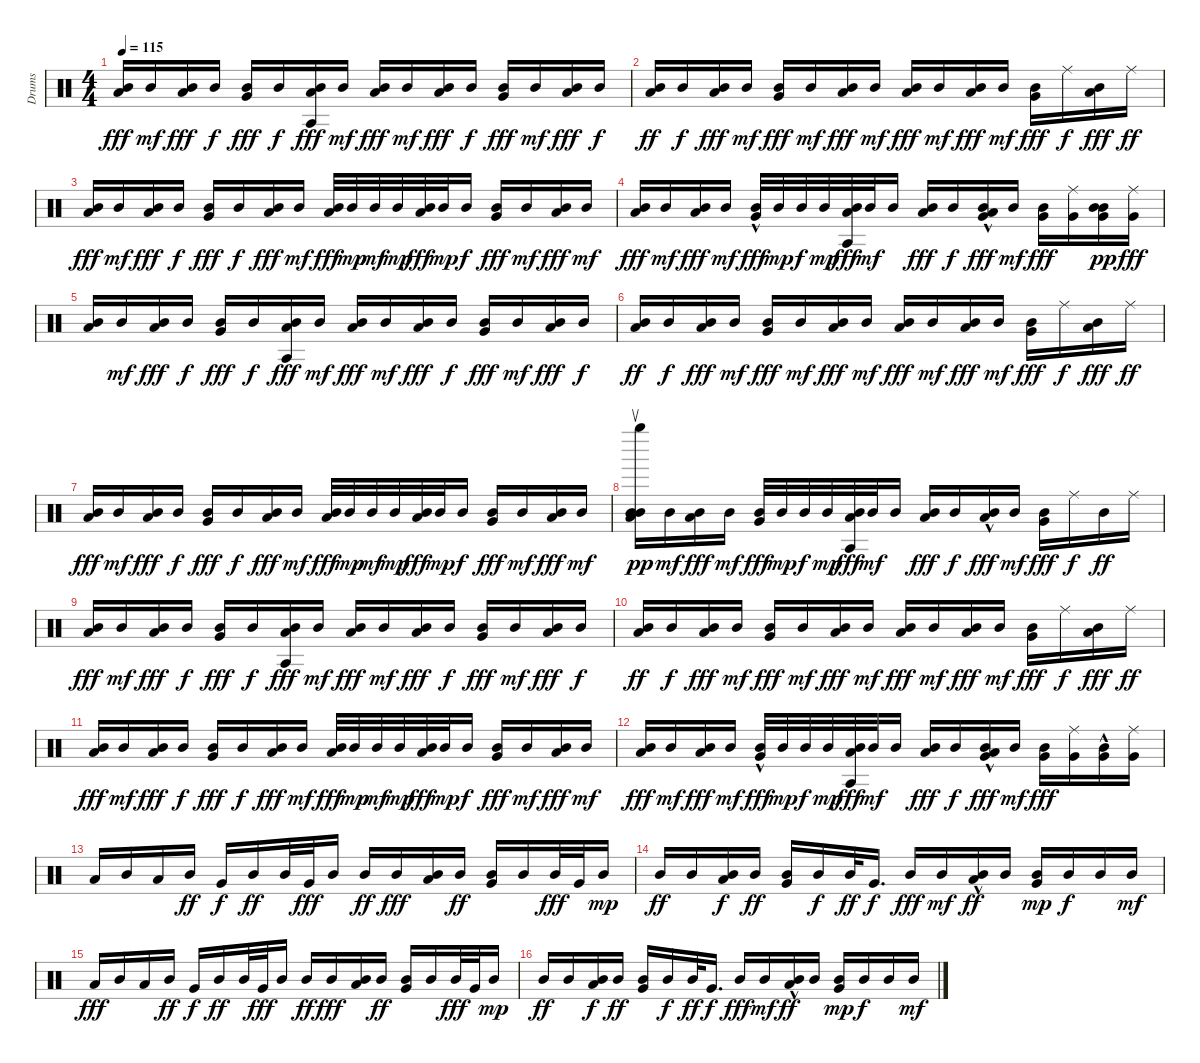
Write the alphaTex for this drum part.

\track ("Drums" "Drums") {instrument percussion}
\staff {score}
\articulation defaults
\ts (4 4)
\tempo 115
\clef neutral
\ks c
("Mid Tom (hit)" "Low Floor Tom (hit)").16{dy fff} "Mid Tom (hit)".16{dy mf} ("Mid Tom (hit)" "Low Floor Tom (hit)").16{dy fff} "Mid Tom (hit)".16{dy f} ("Mid Tom (hit)" "Very Low Tom (hit)").16{dy fff} "Mid Tom (hit)".16{dy f} ("Mid Tom (hit)" "Agogo tow (hit)" "Low Floor Tom (hit)").16{dy fff} "Mid Tom (hit)".16{dy mf} ("Mid Tom (hit)" "Low Floor Tom (hit)").16{dy fff} "Mid Tom (hit)".16{dy mf} ("Mid Tom (hit)" "Low Floor Tom (hit)").16{dy fff} "Mid Tom (hit)".16{dy f} ("Mid Tom (hit)" "Very Low Tom (hit)").16{dy fff} "Mid Tom (hit)".16{dy mf} ("Mid Tom (hit)" "Low Floor Tom (hit)").16{dy fff} "Mid Tom (hit)".16{dy f} |
("Mid Tom (hit)" "Low Floor Tom (hit)").16{dy ff} "Mid Tom (hit)".16{dy f} ("Mid Tom (hit)" "Low Floor Tom (hit)").16{dy fff} "Mid Tom (hit)".16{dy mf} ("Mid Tom (hit)" "Very Low Tom (hit)").16{dy fff} "Mid Tom (hit)".16{dy mf} ("Mid Tom (hit)" "Low Floor Tom (hit)").16{dy fff} "Mid Tom (hit)".16{dy mf} ("Mid Tom (hit)" "Low Floor Tom (hit)").16{dy fff} "Mid Tom (hit)".16{dy mf} ("Mid Tom (hit)" "Low Floor Tom (hit)").16{dy fff} "Mid Tom (hit)".16{dy mf} ("Mid Tom (hit)" "Very Low Tom (hit)").16{dy fff} "Ride (middle)".16{dy f} ("Mid Tom (hit)" "Low Floor Tom (hit)").16{dy fff} "Ride (middle)".16{dy ff} |
("Mid Tom (hit)" "Low Floor Tom (hit)").16{dy fff} "Mid Tom (hit)".16{dy mf} ("Mid Tom (hit)" "Low Floor Tom (hit)").16{dy fff} "Mid Tom (hit)".16{dy f} ("Mid Tom (hit)" "Very Low Tom (hit)").16{dy fff} "Mid Tom (hit)".16{dy f} ("Mid Tom (hit)" "Low Floor Tom (hit)").16{dy fff} "Mid Tom (hit)".16{dy mf} ("Mid Tom (hit)" "Low Floor Tom (hit)").32{dy fff} "Mid Tom (hit)".32{dy mp} "Mid Tom (hit)".32{dy mf} "Mid Tom (hit)".32{dy mp} ("Mid Tom (hit)" "Low Floor Tom (hit)").32{dy fff} "Mid Tom (hit)".32{dy mp} "Mid Tom (hit)".16{dy f} ("Mid Tom (hit)" "Very Low Tom (hit)").16{dy fff} "Mid Tom (hit)".16{dy mf} ("Mid Tom (hit)" "Low Floor Tom (hit)").16{dy fff} "Mid Tom (hit)".16{dy mf} |
("Mid Tom (hit)" "Low Floor Tom (hit)").16{dy fff} "Mid Tom (hit)".16{dy mf} ("Mid Tom (hit)" "Low Floor Tom (hit)").16{dy fff} "Mid Tom (hit)".16{dy mf} ("Mid Tom (hit)" "Very Low Tom (hit)"{hac}).32{dy fff} "Mid Tom (hit)".32{dy mp} "Mid Tom (hit)".32{dy f} "Mid Tom (hit)".32{dy mp} ("Mid Tom (hit)" "Agogo tow (hit)" "Low Floor Tom (hit)").32{dy fff} "Mid Tom (hit)".32{dy mf} "Mid Tom (hit)".16 ("Mid Tom (hit)" "Low Floor Tom (hit)").16{dy fff} "Mid Tom (hit)".16{dy f} ("Mid Tom (hit)" "Very Low Tom (hit)" "Low Floor Tom (hit)"{hac}).16{dy fff} "Mid Tom (hit)".16{dy mf} ("Mid Tom (hit)" "Very Low Tom (hit)").16{dy fff} ("Ride (middle)" "Very Low Tom (hit)").16 ("Mid Tom (hit)" "Mid Tom (hit)" "Very Low Tom (hit)").16{dy pp} ("Ride (middle)" "Very Low Tom (hit)").16{dy fff} |
("Mid Tom (hit)" "Low Floor Tom (hit)").16 "Mid Tom (hit)".16{dy mf} ("Mid Tom (hit)" "Low Floor Tom (hit)").16{dy fff} "Mid Tom (hit)".16{dy f} ("Mid Tom (hit)" "Very Low Tom (hit)").16{dy fff} "Mid Tom (hit)".16{dy f} ("Mid Tom (hit)" "Agogo tow (hit)" "Low Floor Tom (hit)").16{dy fff} "Mid Tom (hit)".16{dy mf} ("Mid Tom (hit)" "Low Floor Tom (hit)").16{dy fff} "Mid Tom (hit)".16{dy mf} ("Mid Tom (hit)" "Low Floor Tom (hit)").16{dy fff} "Mid Tom (hit)".16{dy f} ("Mid Tom (hit)" "Very Low Tom (hit)").16{dy fff} "Mid Tom (hit)".16{dy mf} ("Mid Tom (hit)" "Low Floor Tom (hit)").16{dy fff} "Mid Tom (hit)".16{dy f} |
("Mid Tom (hit)" "Low Floor Tom (hit)").16{dy ff} "Mid Tom (hit)".16{dy f} ("Mid Tom (hit)" "Low Floor Tom (hit)").16{dy fff} "Mid Tom (hit)".16{dy mf} ("Mid Tom (hit)" "Very Low Tom (hit)").16{dy fff} "Mid Tom (hit)".16{dy mf} ("Mid Tom (hit)" "Low Floor Tom (hit)").16{dy fff} "Mid Tom (hit)".16{dy mf} ("Mid Tom (hit)" "Low Floor Tom (hit)").16{dy fff} "Mid Tom (hit)".16{dy mf} ("Mid Tom (hit)" "Low Floor Tom (hit)").16{dy fff} "Mid Tom (hit)".16{dy mf} ("Mid Tom (hit)" "Very Low Tom (hit)").16{dy fff} "Ride (middle)".16{dy f} ("Mid Tom (hit)" "Low Floor Tom (hit)").16{dy fff} "Ride (middle)".16{dy ff} |
("Mid Tom (hit)" "Low Floor Tom (hit)").16{dy fff} "Mid Tom (hit)".16{dy mf} ("Mid Tom (hit)" "Low Floor Tom (hit)").16{dy fff} "Mid Tom (hit)".16{dy f} ("Mid Tom (hit)" "Very Low Tom (hit)").16{dy fff} "Mid Tom (hit)".16{dy f} ("Mid Tom (hit)" "Low Floor Tom (hit)").16{dy fff} "Mid Tom (hit)".16{dy mf} ("Mid Tom (hit)" "Low Floor Tom (hit)").32{dy fff} "Mid Tom (hit)".32{dy mp} "Mid Tom (hit)".32{dy mf} "Mid Tom (hit)".32{dy mp} ("Mid Tom (hit)" "Low Floor Tom (hit)").32{dy fff} "Mid Tom (hit)".32{dy mp} "Mid Tom (hit)".16{dy f} ("Mid Tom (hit)" "Very Low Tom (hit)").16{dy fff} "Mid Tom (hit)".16{dy mf} ("Mid Tom (hit)" "Low Floor Tom (hit)").16{dy fff} "Mid Tom (hit)".16{dy mf} |
("Low Floor Tom (hit)" "Mid Tom (hit)" "Mid Tom (hit)" "Right Maraca (return)").16{dy pp} "Mid Tom (hit)".16{dy mf} ("Mid Tom (hit)" "Low Floor Tom (hit)").16{dy fff} "Mid Tom (hit)".16{dy mf} ("Mid Tom (hit)" "Very Low Tom (hit)").32{dy fff} "Mid Tom (hit)".32{dy mp} "Mid Tom (hit)".32{dy f} "Mid Tom (hit)".32{dy mp} ("Mid Tom (hit)" "Agogo tow (hit)" "Low Floor Tom (hit)").32{dy fff} "Mid Tom (hit)".32{dy mf} "Mid Tom (hit)".16 ("Mid Tom (hit)" "Low Floor Tom (hit)").16{dy fff} "Mid Tom (hit)".16{dy f} ("Mid Tom (hit)" "Low Floor Tom (hit)"{hac}).16{dy fff} "Mid Tom (hit)".16{dy mf} ("Mid Tom (hit)" "Very Low Tom (hit)").16{dy fff} "Ride (middle)".16{dy f} "Mid Tom (hit)".16{dy ff} "Ride (middle)".16 |
("Mid Tom (hit)" "Low Floor Tom (hit)").16{dy fff} "Mid Tom (hit)".16{dy mf} ("Mid Tom (hit)" "Low Floor Tom (hit)").16{dy fff} "Mid Tom (hit)".16{dy f} ("Mid Tom (hit)" "Very Low Tom (hit)").16{dy fff} "Mid Tom (hit)".16{dy f} ("Mid Tom (hit)" "Agogo tow (hit)" "Low Floor Tom (hit)").16{dy fff} "Mid Tom (hit)".16{dy mf} ("Mid Tom (hit)" "Low Floor Tom (hit)").16{dy fff} "Mid Tom (hit)".16{dy mf} ("Mid Tom (hit)" "Low Floor Tom (hit)").16{dy fff} "Mid Tom (hit)".16{dy f} ("Mid Tom (hit)" "Very Low Tom (hit)").16{dy fff} "Mid Tom (hit)".16{dy mf} ("Mid Tom (hit)" "Low Floor Tom (hit)").16{dy fff} "Mid Tom (hit)".16{dy f} |
("Mid Tom (hit)" "Low Floor Tom (hit)").16{dy ff} "Mid Tom (hit)".16{dy f} ("Mid Tom (hit)" "Low Floor Tom (hit)").16{dy fff} "Mid Tom (hit)".16{dy mf} ("Mid Tom (hit)" "Very Low Tom (hit)").16{dy fff} "Mid Tom (hit)".16{dy mf} ("Mid Tom (hit)" "Low Floor Tom (hit)").16{dy fff} "Mid Tom (hit)".16{dy mf} ("Mid Tom (hit)" "Low Floor Tom (hit)").16{dy fff} "Mid Tom (hit)".16{dy mf} ("Mid Tom (hit)" "Low Floor Tom (hit)").16{dy fff} "Mid Tom (hit)".16{dy mf} ("Mid Tom (hit)" "Very Low Tom (hit)").16{dy fff} "Ride (middle)".16{dy f} ("Mid Tom (hit)" "Low Floor Tom (hit)").16{dy fff} "Ride (middle)".16{dy ff} |
("Mid Tom (hit)" "Low Floor Tom (hit)").16{dy fff} "Mid Tom (hit)".16{dy mf} ("Mid Tom (hit)" "Low Floor Tom (hit)").16{dy fff} "Mid Tom (hit)".16{dy f} ("Mid Tom (hit)" "Very Low Tom (hit)").16{dy fff} "Mid Tom (hit)".16{dy f} ("Mid Tom (hit)" "Low Floor Tom (hit)").16{dy fff} "Mid Tom (hit)".16{dy mf} ("Mid Tom (hit)" "Low Floor Tom (hit)").32{dy fff} "Mid Tom (hit)".32{dy mp} "Mid Tom (hit)".32{dy mf} "Mid Tom (hit)".32{dy mp} ("Mid Tom (hit)" "Low Floor Tom (hit)").32{dy fff} "Mid Tom (hit)".32{dy mp} "Mid Tom (hit)".16{dy f} ("Mid Tom (hit)" "Very Low Tom (hit)").16{dy fff} "Mid Tom (hit)".16{dy mf} ("Mid Tom (hit)" "Low Floor Tom (hit)").16{dy fff} "Mid Tom (hit)".16{dy mf} |
("Mid Tom (hit)" "Low Floor Tom (hit)").16{dy fff} "Mid Tom (hit)".16{dy mf} ("Mid Tom (hit)" "Low Floor Tom (hit)").16{dy fff} "Mid Tom (hit)".16{dy mf} ("Mid Tom (hit)" "Very Low Tom (hit)"{hac}).32{dy fff} "Mid Tom (hit)".32{dy mp} "Mid Tom (hit)".32{dy f} "Mid Tom (hit)".32{dy mp} ("Mid Tom (hit)" "Agogo tow (hit)" "Low Floor Tom (hit)").32{dy fff} "Mid Tom (hit)".32{dy mf} "Mid Tom (hit)".16 ("Mid Tom (hit)" "Low Floor Tom (hit)").16{dy fff} "Mid Tom (hit)".16{dy f} ("Mid Tom (hit)" "Very Low Tom (hit)" "Low Floor Tom (hit)"{hac}).16{dy fff} "Mid Tom (hit)".16{dy mf} ("Mid Tom (hit)" "Very Low Tom (hit)").16{dy fff} ("Ride (middle)" "Very Low Tom (hit)").16 ("Mid Tom (hit)"{hac} "Very Low Tom (hit)").16 ("Ride (middle)" "Very Low Tom (hit)").16 |
"Low Floor Tom (hit)".16 "Mid Tom (hit)".16 "Low Floor Tom (hit)".16 "Mid Tom (hit)".16{dy ff} "Very Low Tom (hit)".16{dy f} "Mid Tom (hit)".16{dy ff} "Mid Tom (hit)".32 "Very Low Tom (hit)".32{dy fff} "Mid Tom (hit)".16 "Mid Tom (hit)".16{dy ff} "Mid Tom (hit)".16{dy fff} ("Low Floor Tom (hit)" "Mid Tom (hit)").16 "Mid Tom (hit)".16{dy ff} ("Very Low Tom (hit)" "Mid Tom (hit)").16 "Mid Tom (hit)".16 "Mid Tom (hit)".32{dy fff} "Very Low Tom (hit)".32 "Mid Tom (hit)".16{dy mp} |
"Mid Tom (hit)".16{dy ff} "Mid Tom (hit)".16 ("Low Floor Tom (hit)" "Mid Tom (hit)").16{dy f} "Mid Tom (hit)".16{dy ff} ("Very Low Tom (hit)" "Mid Tom (hit)").16 "Mid Tom (hit)".16{dy f} "Mid Tom (hit)".32{dy ff} "Very Low Tom (hit)".16{d dy f} "Mid Tom (hit)".16{dy fff} "Mid Tom (hit)".16{dy mf} ("Low Floor Tom (hit)"{hac} "Mid Tom (hit)").16{dy ff} "Mid Tom (hit)".16 ("Very Low Tom (hit)" "Mid Tom (hit)").16{dy mp} "Mid Tom (hit)".16{dy f} "Mid Tom (hit)".16 "Mid Tom (hit)".16{dy mf} |
"Low Floor Tom (hit)".16{dy fff} "Mid Tom (hit)".16 "Low Floor Tom (hit)".16 "Mid Tom (hit)".16{dy ff} "Very Low Tom (hit)".16{dy f} "Mid Tom (hit)".16{dy ff} "Mid Tom (hit)".32 "Very Low Tom (hit)".32{dy fff} "Mid Tom (hit)".16 "Mid Tom (hit)".16{dy ff} "Mid Tom (hit)".16{dy fff} ("Low Floor Tom (hit)" "Mid Tom (hit)").16 "Mid Tom (hit)".16{dy ff} ("Very Low Tom (hit)" "Mid Tom (hit)").16 "Mid Tom (hit)".16 "Mid Tom (hit)".32{dy fff} "Very Low Tom (hit)".32 "Mid Tom (hit)".16{dy mp} |
"Mid Tom (hit)".16{dy ff} "Mid Tom (hit)".16 ("Low Floor Tom (hit)" "Mid Tom (hit)").16{dy f} "Mid Tom (hit)".16{dy ff} ("Very Low Tom (hit)" "Mid Tom (hit)").16 "Mid Tom (hit)".16{dy f} "Mid Tom (hit)".32{dy ff} "Very Low Tom (hit)".16{d dy f} "Mid Tom (hit)".16{dy fff} "Mid Tom (hit)".16{dy mf} ("Low Floor Tom (hit)"{hac} "Mid Tom (hit)").16{dy ff} "Mid Tom (hit)".16 ("Very Low Tom (hit)" "Mid Tom (hit)").16{dy mp} "Mid Tom (hit)".16{dy f} "Mid Tom (hit)".16 "Mid Tom (hit)".16{dy mf}
